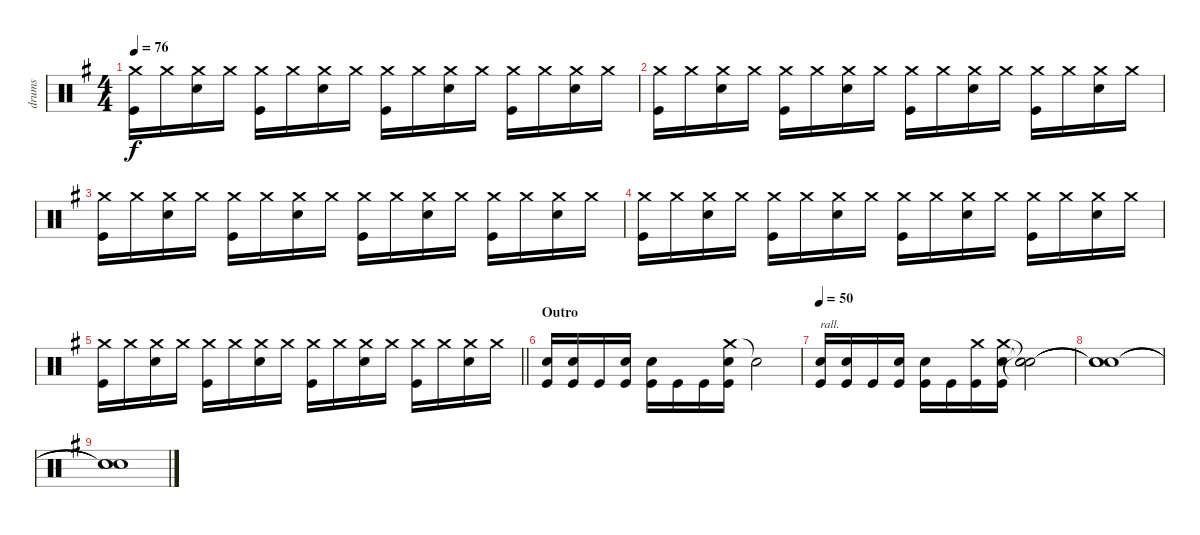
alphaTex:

\track ("drums" "drums") {instrument percussion}
\staff {score}
\articulation defaults
\ts (4 4)
\tempo 76
\clef neutral
\ks eminor
("Crash medium (hit)" "Kick (hit)").16{dy f} "Crash medium (hit)".16 ("Crash medium (hit)" "Snare (hit) 2").16 "Crash medium (hit)".16 ("Crash medium (hit)" "Kick (hit)").16 "Crash medium (hit)".16 ("Crash medium (hit)" "Snare (hit) 2").16 "Crash medium (hit)".16 ("Crash medium (hit)" "Kick (hit)").16 "Crash medium (hit)".16 ("Crash medium (hit)" "Snare (hit) 2").16 "Crash medium (hit)".16 ("Crash medium (hit)" "Kick (hit)").16 "Crash medium (hit)".16 ("Crash medium (hit)" "Snare (hit) 2").16 "Crash medium (hit)".16 |
("Crash medium (hit)" "Kick (hit)").16 "Crash medium (hit)".16 ("Crash medium (hit)" "Snare (hit) 2").16 "Crash medium (hit)".16 ("Crash medium (hit)" "Kick (hit)").16 "Crash medium (hit)".16 ("Crash medium (hit)" "Snare (hit) 2").16 "Crash medium (hit)".16 ("Crash medium (hit)" "Kick (hit)").16 "Crash medium (hit)".16 ("Crash medium (hit)" "Snare (hit) 2").16 "Crash medium (hit)".16 ("Crash medium (hit)" "Kick (hit)").16 "Crash medium (hit)".16 ("Crash medium (hit)" "Snare (hit) 2").16 "Crash medium (hit)".16 |
("Crash medium (hit)" "Kick (hit)").16 "Crash medium (hit)".16 ("Crash medium (hit)" "Snare (hit) 2").16 "Crash medium (hit)".16 ("Crash medium (hit)" "Kick (hit)").16 "Crash medium (hit)".16 ("Crash medium (hit)" "Snare (hit) 2").16 "Crash medium (hit)".16 ("Crash medium (hit)" "Kick (hit)").16 "Crash medium (hit)".16 ("Crash medium (hit)" "Snare (hit) 2").16 "Crash medium (hit)".16 ("Crash medium (hit)" "Kick (hit)").16 "Crash medium (hit)".16 ("Crash medium (hit)" "Snare (hit) 2").16 "Crash medium (hit)".16 |
("Crash medium (hit)" "Kick (hit)").16 "Crash medium (hit)".16 ("Crash medium (hit)" "Snare (hit) 2").16 "Crash medium (hit)".16 ("Crash medium (hit)" "Kick (hit)").16 "Crash medium (hit)".16 ("Crash medium (hit)" "Snare (hit) 2").16 "Crash medium (hit)".16 ("Crash medium (hit)" "Kick (hit)").16 "Crash medium (hit)".16 ("Crash medium (hit)" "Snare (hit) 2").16 "Crash medium (hit)".16 ("Crash medium (hit)" "Kick (hit)").16 "Crash medium (hit)".16 ("Crash medium (hit)" "Snare (hit) 2").16 "Crash medium (hit)".16 |
\barLineRight lightlight
("Crash medium (hit)" "Kick (hit)").16 "Crash medium (hit)".16 ("Crash medium (hit)" "Snare (hit) 2").16 "Crash medium (hit)".16 ("Crash medium (hit)" "Kick (hit)").16 "Crash medium (hit)".16 ("Crash medium (hit)" "Snare (hit) 2").16 "Crash medium (hit)".16 ("Crash medium (hit)" "Kick (hit)").16 "Crash medium (hit)".16 ("Crash medium (hit)" "Snare (hit) 2").16 "Crash medium (hit)".16 ("Crash medium (hit)" "Kick (hit)").16 "Crash medium (hit)".16 ("Crash medium (hit)" "Snare (hit) 2").16 "Crash medium (hit)".16 |
\section ("" "Outro")
("Electric Snare (hit)" "Kick (hit)").16 ("Electric Snare (hit)" "Kick (hit)").16 "Kick (hit)".16 ("Electric Snare (hit)" "Kick (hit)").16 ("Electric Snare (hit)" "Kick (hit)").16 "Kick (hit)".16 "Kick (hit)".16 ("Crash medium (hit)" "Electric Snare (hit)" "Kick (hit)").16 "Snare (hit)"{t}.2 |
\tempo 50
("Electric Snare (hit)" "Kick (hit)").16{txt "rall."} ("Electric Snare (hit)" "Kick (hit)").16 "Kick (hit)".16 ("Electric Snare (hit)" "Kick (hit)").16 ("Electric Snare (hit)" "Kick (hit)").16 "Kick (hit)".16 ("Crash medium (hit)" "Kick (hit)").16 ("Crash medium (hit)" "Electric Snare (hit)" "Kick (hit)").16 ("Snare (hit)"{t} "Snare (hit)"{t} "Snare (hit)"{t}).2 |
("Snare (hit)"{t} "Snare (hit)"{t} "Snare (hit)"{t}).1 |
("Snare (hit)"{t} "Snare (hit)"{t} "Snare (hit)"{t}).1
